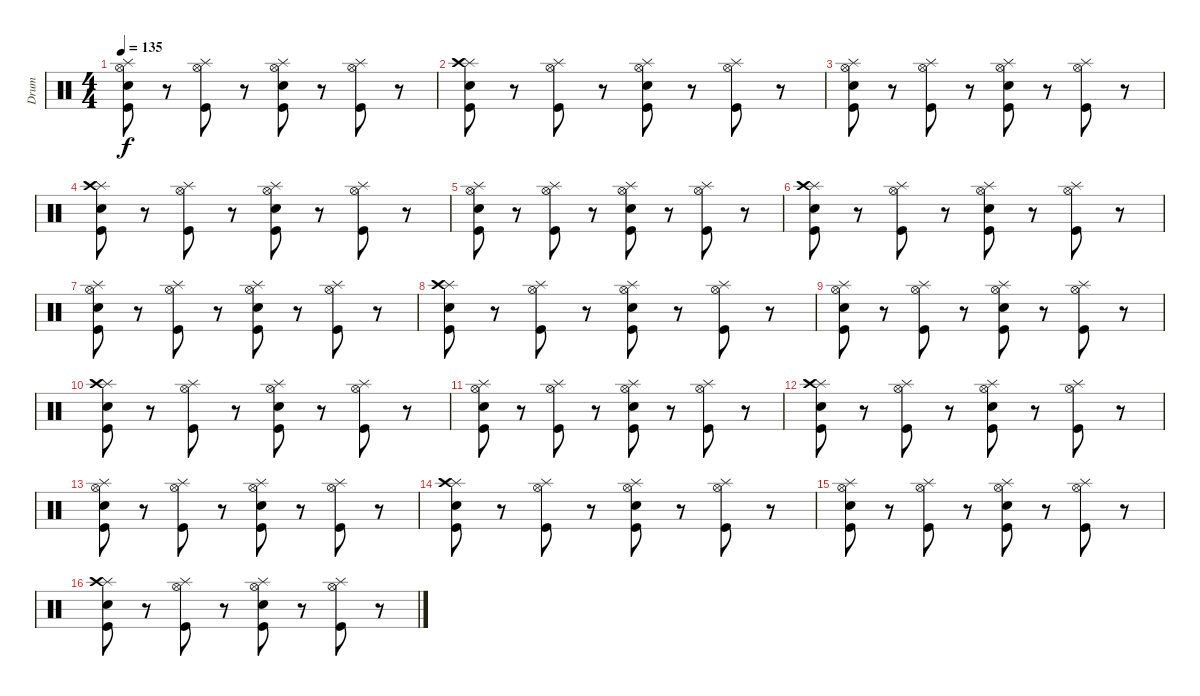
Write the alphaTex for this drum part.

\track ("Drum" "Drum") {instrument percussion}
\staff {score}
\articulation defaults
\ts (4 4)
\tempo 135
\clef neutral
\ks c
("Splash (hit)" "Hi-Hat (open)" "Snare (hit) 2" "Kick (hit)").8{dy f} r.8 ("Splash (hit)" "Hi-Hat (open)" "Kick (hit)").8 r.8 ("Splash (hit)" "Hi-Hat (open)" "Snare (hit) 2" "Kick (hit)").8 r.8 ("Splash (hit)" "Hi-Hat (open)" "Kick (hit)").8 r.8 |
("Splash (hit)" "Crash high (hit)" "Snare (hit) 2" "Kick (hit)").8 r.8 ("Splash (hit)" "Hi-Hat (open)" "Kick (hit)").8 r.8 ("Splash (hit)" "Hi-Hat (open)" "Snare (hit) 2" "Kick (hit)").8 r.8 ("Splash (hit)" "Hi-Hat (open)" "Kick (hit)").8 r.8 |
("Splash (hit)" "Hi-Hat (open)" "Snare (hit) 2" "Kick (hit)").8 r.8 ("Splash (hit)" "Hi-Hat (open)" "Kick (hit)").8 r.8 ("Splash (hit)" "Hi-Hat (open)" "Snare (hit) 2" "Kick (hit)").8 r.8 ("Splash (hit)" "Hi-Hat (open)" "Kick (hit)").8 r.8 |
("Splash (hit)" "Crash high (hit)" "Snare (hit) 2" "Kick (hit)").8 r.8 ("Splash (hit)" "Hi-Hat (open)" "Kick (hit)").8 r.8 ("Splash (hit)" "Hi-Hat (open)" "Snare (hit) 2" "Kick (hit)").8 r.8 ("Splash (hit)" "Hi-Hat (open)" "Kick (hit)").8 r.8 |
("Splash (hit)" "Hi-Hat (open)" "Snare (hit) 2" "Kick (hit)").8 r.8 ("Splash (hit)" "Hi-Hat (open)" "Kick (hit)").8 r.8 ("Splash (hit)" "Hi-Hat (open)" "Snare (hit) 2" "Kick (hit)").8 r.8 ("Splash (hit)" "Hi-Hat (open)" "Kick (hit)").8 r.8 |
("Splash (hit)" "Crash high (hit)" "Snare (hit) 2" "Kick (hit)").8 r.8 ("Splash (hit)" "Hi-Hat (open)" "Kick (hit)").8 r.8 ("Splash (hit)" "Hi-Hat (open)" "Snare (hit) 2" "Kick (hit)").8 r.8 ("Splash (hit)" "Hi-Hat (open)" "Kick (hit)").8 r.8 |
("Splash (hit)" "Hi-Hat (open)" "Snare (hit) 2" "Kick (hit)").8 r.8 ("Splash (hit)" "Hi-Hat (open)" "Kick (hit)").8 r.8 ("Splash (hit)" "Hi-Hat (open)" "Snare (hit) 2" "Kick (hit)").8 r.8 ("Splash (hit)" "Hi-Hat (open)" "Kick (hit)").8 r.8 |
("Splash (hit)" "Crash high (hit)" "Snare (hit) 2" "Kick (hit)").8 r.8 ("Splash (hit)" "Hi-Hat (open)" "Kick (hit)").8 r.8 ("Splash (hit)" "Hi-Hat (open)" "Snare (hit) 2" "Kick (hit)").8 r.8 ("Splash (hit)" "Hi-Hat (open)" "Kick (hit)").8 r.8 |
("Splash (hit)" "Hi-Hat (open)" "Snare (hit) 2" "Kick (hit)").8 r.8 ("Splash (hit)" "Hi-Hat (open)" "Kick (hit)").8 r.8 ("Splash (hit)" "Hi-Hat (open)" "Snare (hit) 2" "Kick (hit)").8 r.8 ("Splash (hit)" "Hi-Hat (open)" "Kick (hit)").8 r.8 |
("Splash (hit)" "Crash high (hit)" "Snare (hit) 2" "Kick (hit)").8 r.8 ("Splash (hit)" "Hi-Hat (open)" "Kick (hit)").8 r.8 ("Splash (hit)" "Hi-Hat (open)" "Snare (hit) 2" "Kick (hit)").8 r.8 ("Splash (hit)" "Hi-Hat (open)" "Kick (hit)").8 r.8 |
("Splash (hit)" "Hi-Hat (open)" "Snare (hit) 2" "Kick (hit)").8 r.8 ("Splash (hit)" "Hi-Hat (open)" "Kick (hit)").8 r.8 ("Splash (hit)" "Hi-Hat (open)" "Snare (hit) 2" "Kick (hit)").8 r.8 ("Splash (hit)" "Hi-Hat (open)" "Kick (hit)").8 r.8 |
("Splash (hit)" "Crash high (hit)" "Snare (hit) 2" "Kick (hit)").8 r.8 ("Splash (hit)" "Hi-Hat (open)" "Kick (hit)").8 r.8 ("Splash (hit)" "Hi-Hat (open)" "Snare (hit) 2" "Kick (hit)").8 r.8 ("Splash (hit)" "Hi-Hat (open)" "Kick (hit)").8 r.8 |
("Splash (hit)" "Hi-Hat (open)" "Snare (hit) 2" "Kick (hit)").8 r.8 ("Splash (hit)" "Hi-Hat (open)" "Kick (hit)").8 r.8 ("Splash (hit)" "Hi-Hat (open)" "Snare (hit) 2" "Kick (hit)").8 r.8 ("Splash (hit)" "Hi-Hat (open)" "Kick (hit)").8 r.8 |
("Splash (hit)" "Crash high (hit)" "Snare (hit) 2" "Kick (hit)").8 r.8 ("Splash (hit)" "Hi-Hat (open)" "Kick (hit)").8 r.8 ("Splash (hit)" "Hi-Hat (open)" "Snare (hit) 2" "Kick (hit)").8 r.8 ("Splash (hit)" "Hi-Hat (open)" "Kick (hit)").8 r.8 |
("Splash (hit)" "Hi-Hat (open)" "Snare (hit) 2" "Kick (hit)").8 r.8 ("Splash (hit)" "Hi-Hat (open)" "Kick (hit)").8 r.8 ("Splash (hit)" "Hi-Hat (open)" "Snare (hit) 2" "Kick (hit)").8 r.8 ("Splash (hit)" "Hi-Hat (open)" "Kick (hit)").8 r.8 |
("Splash (hit)" "Crash high (hit)" "Snare (hit) 2" "Kick (hit)").8 r.8 ("Splash (hit)" "Hi-Hat (open)" "Kick (hit)").8 r.8 ("Splash (hit)" "Hi-Hat (open)" "Snare (hit) 2" "Kick (hit)").8 r.8 ("Splash (hit)" "Hi-Hat (open)" "Kick (hit)").8 r.8
